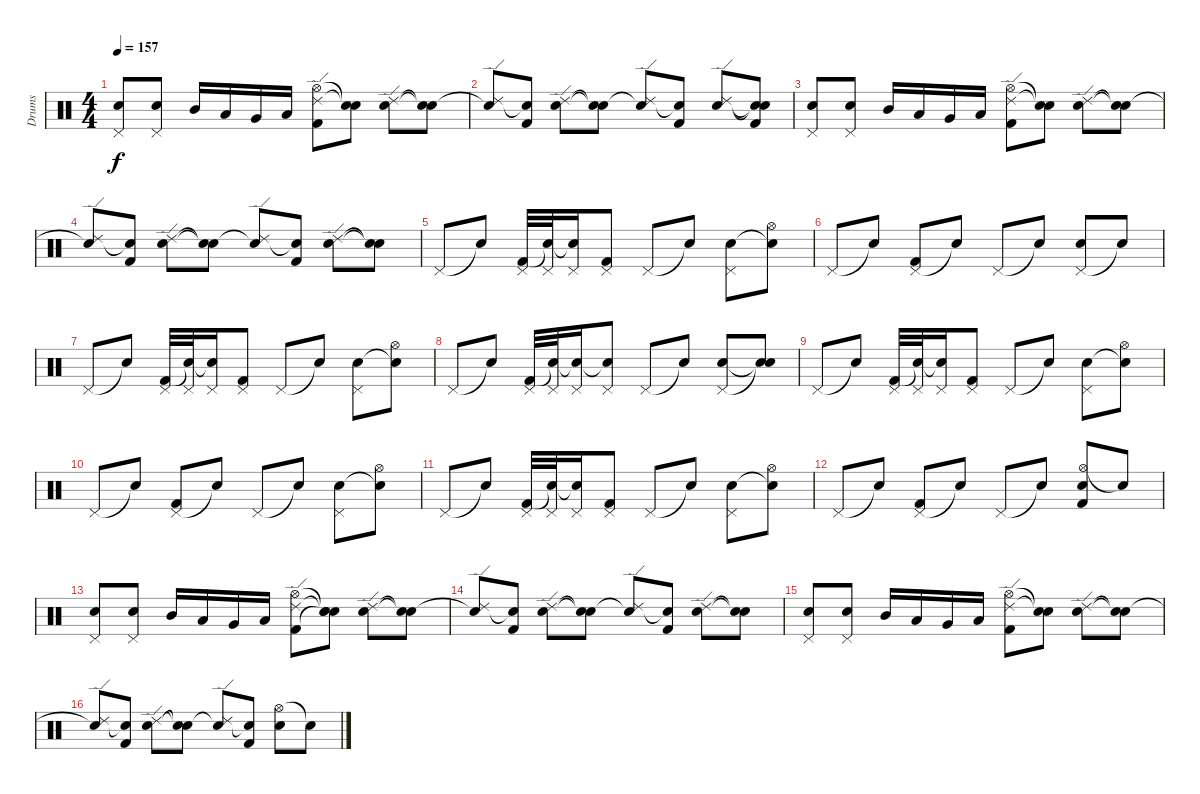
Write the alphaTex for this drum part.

\track ("Drums" "Drums") {instrument percussion}
\staff {score}
\articulation defaults
\ts (4 4)
\tempo 157
\clef neutral
\ks c
("Pedal Hi-Hat (hit)" "Snare (hit) 2").8{dy f} ("Pedal Hi-Hat (hit)" "Snare (hit) 2").8 "Mid Tom (hit)".16 "Low Tom (hit)".16 "Very Low Tom (hit)".16 "Low Floor Tom (hit)".16 ("Hi-Hat (open)" "Ride (edge) 2" "Kick (hit) 2").8 ("Snare (hit)"{t} "Snare (hit)"{t}).8 ("Ride (edge) 2" "Snare (hit) 2").8 ("Snare (hit)"{t} "Snare (hit)"{t}).8 |
("Ride (edge) 2" "Snare (hit)"{t}).8 ("Snare (hit)"{t} "Kick (hit) 2").8 ("Ride (edge) 2" "Snare (hit) 2").8 ("Snare (hit)"{t} "Snare (hit)"{t}).8 ("Ride (edge) 2" "Snare (hit)"{t}).8 ("Snare (hit)"{t} "Kick (hit) 2").8 ("Ride (edge) 2" "Snare (hit) 2").8 ("Snare (hit)"{t} "Snare (hit)"{t} "Kick (hit) 2").8 |
("Pedal Hi-Hat (hit)" "Snare (hit) 2").8 ("Pedal Hi-Hat (hit)" "Snare (hit) 2").8 "Mid Tom (hit)".16 "Low Tom (hit)".16 "Very Low Tom (hit)".16 "Low Floor Tom (hit)".16 ("Ride (edge) 2" "Hi-Hat (open)" "Kick (hit) 2").8 ("Snare (hit)"{t} "Snare (hit)"{t}).8 ("Ride (edge) 2" "Snare (hit) 2").8 ("Snare (hit)"{t} "Snare (hit)"{t}).8 |
("Ride (edge) 2" "Snare (hit)"{t}).8 ("Snare (hit)"{t} "Kick (hit) 2").8 ("Ride (edge) 2" "Snare (hit) 2").8 ("Snare (hit)"{t} "Snare (hit)"{t}).8 ("Ride (edge) 2" "Snare (hit)"{t}).8 ("Snare (hit)"{t} "Kick (hit) 2").8 ("Ride (edge) 2" "Snare (hit) 2").8 ("Snare (hit)"{t} "Snare (hit)"{t}).8 |
"Pedal Hi-Hat (hit)".8 "Snare (hit)"{t}.8 ("Pedal Hi-Hat (hit)" "Kick (hit) 2").32 ("Pedal Hi-Hat (hit)" "Snare (hit)"{t}).32 ("Pedal Hi-Hat (hit)" "Snare (hit)"{t}).16 ("Pedal Hi-Hat (hit)" "Kick (hit) 2").8 "Pedal Hi-Hat (hit)".8 "Snare (hit)"{t}.8 ("Pedal Hi-Hat (hit)" "Snare (hit) 2").8 ("Hi-Hat (open)" "Snare (hit)"{t}).8 |
"Pedal Hi-Hat (hit)".8 "Snare (hit)"{t}.8 ("Pedal Hi-Hat (hit)" "Kick (hit) 2").8 "Snare (hit)"{t}.8 "Pedal Hi-Hat (hit)".8 "Snare (hit)"{t}.8 ("Pedal Hi-Hat (hit)" "Snare (hit) 2").8 "Snare (hit)"{t}.8 |
"Pedal Hi-Hat (hit)".8 "Snare (hit)"{t}.8 ("Pedal Hi-Hat (hit)" "Kick (hit) 2").32 ("Pedal Hi-Hat (hit)" "Snare (hit)"{t}).32 ("Pedal Hi-Hat (hit)" "Snare (hit)"{t}).16 ("Pedal Hi-Hat (hit)" "Kick (hit) 2").8 "Pedal Hi-Hat (hit)".8 "Snare (hit)"{t}.8 ("Pedal Hi-Hat (hit)" "Snare (hit) 2").8 ("Hi-Hat (open)" "Snare (hit)"{t}).8 |
"Pedal Hi-Hat (hit)".8 "Snare (hit)"{t}.8 ("Pedal Hi-Hat (hit)" "Kick (hit) 2").32 ("Pedal Hi-Hat (hit)" "Snare (hit)"{t}).32 ("Pedal Hi-Hat (hit)" "Snare (hit)"{t}).16 ("Pedal Hi-Hat (hit)" "Snare (hit)"{t}).8 "Pedal Hi-Hat (hit)".8 "Snare (hit)"{t}.8 ("Pedal Hi-Hat (hit)" "Snare (hit) 2").8 ("Snare (hit)"{t} "Snare (hit)"{t}).8 |
"Pedal Hi-Hat (hit)".8 "Snare (hit)"{t}.8 ("Pedal Hi-Hat (hit)" "Kick (hit) 2").32 ("Pedal Hi-Hat (hit)" "Snare (hit)"{t}).32 ("Pedal Hi-Hat (hit)" "Snare (hit)"{t}).16 ("Pedal Hi-Hat (hit)" "Kick (hit) 2").8 "Pedal Hi-Hat (hit)".8 "Snare (hit)"{t}.8 ("Pedal Hi-Hat (hit)" "Snare (hit) 2").8 ("Hi-Hat (open)" "Snare (hit)"{t}).8 |
"Pedal Hi-Hat (hit)".8 "Snare (hit)"{t}.8 ("Pedal Hi-Hat (hit)" "Kick (hit) 2").8 "Snare (hit)"{t}.8 "Pedal Hi-Hat (hit)".8 "Snare (hit)"{t}.8 ("Pedal Hi-Hat (hit)" "Snare (hit) 2").8 ("Hi-Hat (open)" "Snare (hit)"{t}).8 |
"Pedal Hi-Hat (hit)".8 "Snare (hit)"{t}.8 ("Pedal Hi-Hat (hit)" "Kick (hit) 2").32 ("Pedal Hi-Hat (hit)" "Snare (hit)"{t}).32 ("Pedal Hi-Hat (hit)" "Snare (hit)"{t}).16 ("Pedal Hi-Hat (hit)" "Kick (hit) 2").8 "Pedal Hi-Hat (hit)".8 "Snare (hit)"{t}.8 ("Pedal Hi-Hat (hit)" "Snare (hit) 2").8 ("Hi-Hat (open)" "Snare (hit)"{t}).8 |
"Pedal Hi-Hat (hit)".8 "Snare (hit)"{t}.8 ("Pedal Hi-Hat (hit)" "Kick (hit) 2").8 "Snare (hit)"{t}.8 "Pedal Hi-Hat (hit)".8 "Snare (hit)"{t}.8 ("Hi-Hat (open)" "Snare (hit) 2" "Kick (hit) 2").8 "Snare (hit)"{t}.8 |
("Pedal Hi-Hat (hit)" "Snare (hit) 2").8 ("Pedal Hi-Hat (hit)" "Snare (hit) 2").8 "Mid Tom (hit)".16 "Low Tom (hit)".16 "Very Low Tom (hit)".16 "Low Floor Tom (hit)".16 ("Hi-Hat (open)" "Ride (edge) 2" "Kick (hit) 2").8 ("Snare (hit)"{t} "Snare (hit)"{t} "Snare (hit)"{t}).8 ("Ride (edge) 2" "Snare (hit) 2").8 ("Snare (hit)"{t} "Snare (hit)"{t}).8 |
("Ride (edge) 2" "Snare (hit)"{t}).8 ("Snare (hit)"{t} "Kick (hit) 2").8 ("Ride (edge) 2" "Snare (hit) 2").8 ("Snare (hit)"{t} "Snare (hit)"{t}).8 ("Ride (edge) 2" "Snare (hit)"{t}).8 ("Snare (hit)"{t} "Kick (hit) 2").8 ("Ride (edge) 2" "Snare (hit) 2").8 ("Snare (hit)"{t} "Snare (hit)"{t}).8 |
("Pedal Hi-Hat (hit)" "Snare (hit) 2").8 ("Pedal Hi-Hat (hit)" "Snare (hit) 2").8 "Mid Tom (hit)".16 "Low Tom (hit)".16 "Very Low Tom (hit)".16 "Low Floor Tom (hit)".16 ("Hi-Hat (open)" "Ride (edge) 2" "Kick (hit) 2").8 ("Snare (hit)"{t} "Snare (hit)"{t}).8 ("Ride (edge) 2" "Snare (hit) 2").8 ("Snare (hit)"{t} "Snare (hit)"{t}).8 |
("Ride (edge) 2" "Snare (hit)"{t}).8 ("Snare (hit)"{t} "Kick (hit) 2").8 ("Ride (edge) 2" "Snare (hit) 2").8 ("Snare (hit)"{t} "Snare (hit)"{t}).8 ("Ride (edge) 2" "Snare (hit)"{t}).8 ("Snare (hit)"{t} "Kick (hit) 2").8 ("Hi-Hat (open)" "Snare (hit) 2").8 "Snare (hit)"{t}.8
